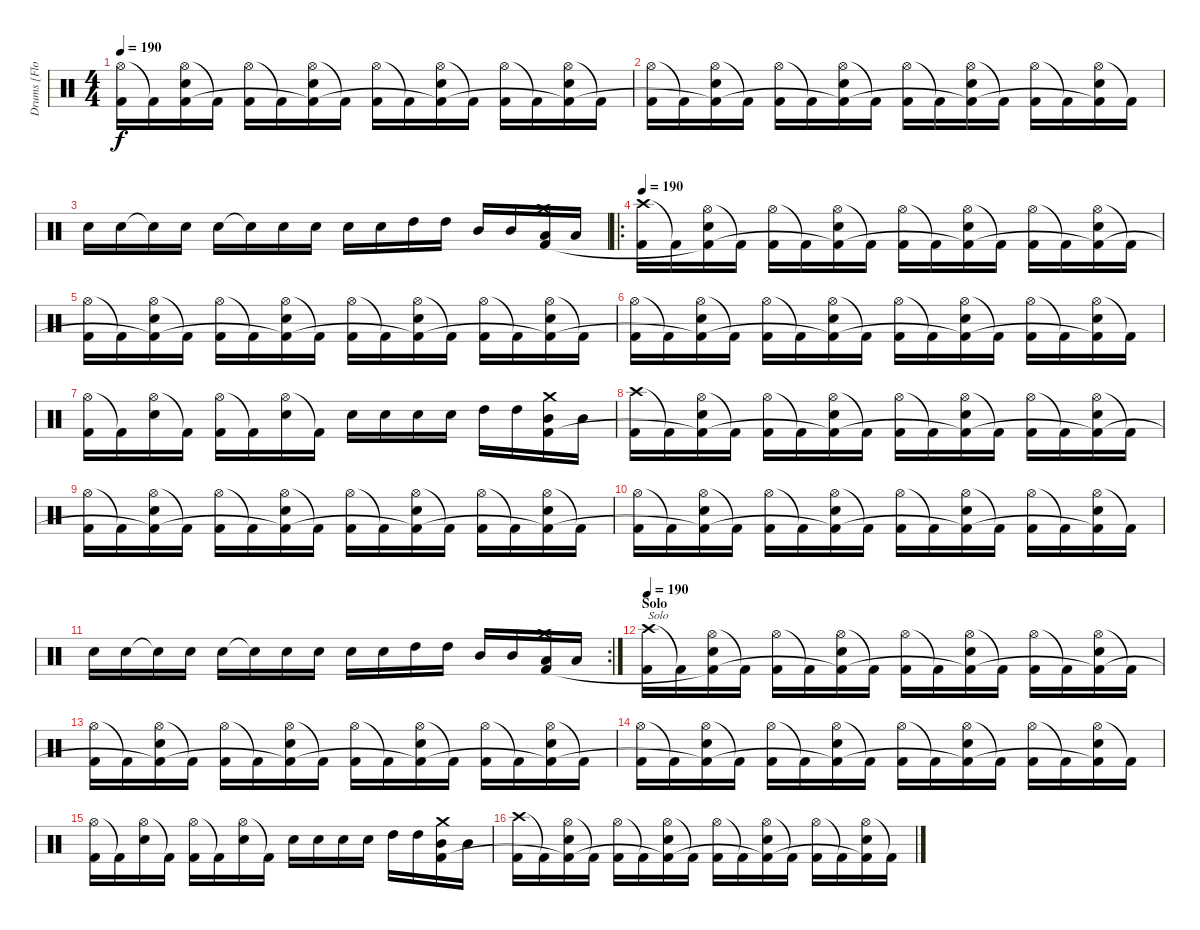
\track ("Drums [Flo Mounier]" "Drums [Flo") {instrument percussion}
\staff {score}
\articulation defaults
\ts (4 4)
\tempo 190
\clef neutral
\ks c
("Hi-Hat (open)" "Kick (hit) 2").16{dy f} "Kick (hit) 2"{t}.16 ("Hi-Hat (open)" "Electric Snare (hit)" "Kick (hit) 2"{t}).16 "Kick (hit) 2"{t}.16 ("Hi-Hat (open)" "Kick (hit) 2").16 "Kick (hit) 2"{t}.16 ("Hi-Hat (open)" "Electric Snare (hit)" "Kick (hit) 2"{t}).16 "Kick (hit) 2"{t}.16 ("Hi-Hat (open)" "Kick (hit) 2").16 "Kick (hit) 2"{t}.16 ("Hi-Hat (open)" "Electric Snare (hit)" "Kick (hit) 2"{t}).16 "Kick (hit) 2"{t}.16 ("Hi-Hat (open)" "Kick (hit) 2").16 "Kick (hit) 2"{t}.16 ("Hi-Hat (open)" "Electric Snare (hit)" "Kick (hit) 2"{t}).16 "Kick (hit) 2"{t}.16 |
("Hi-Hat (open)" "Kick (hit) 2").16 "Kick (hit) 2"{t}.16 ("Hi-Hat (open)" "Electric Snare (hit)" "Kick (hit) 2"{t}).16 "Kick (hit) 2"{t}.16 ("Hi-Hat (open)" "Kick (hit) 2").16 "Kick (hit) 2"{t}.16 ("Hi-Hat (open)" "Electric Snare (hit)" "Kick (hit) 2"{t}).16 "Kick (hit) 2"{t}.16 ("Hi-Hat (open)" "Kick (hit) 2").16 "Kick (hit) 2"{t}.16 ("Hi-Hat (open)" "Electric Snare (hit)" "Kick (hit) 2"{t}).16 "Kick (hit) 2"{t}.16 ("Hi-Hat (open)" "Kick (hit) 2").16 "Kick (hit) 2"{t}.16 ("Hi-Hat (open)" "Electric Snare (hit)" "Kick (hit) 2"{t}).16 "Kick (hit) 2"{t}.16 |
"Electric Snare (hit)".16 "Electric Snare (hit)".16 "Snare (hit)"{t}.16 "Electric Snare (hit)".16 "Electric Snare (hit)".16 "Snare (hit)"{t}.16 "Electric Snare (hit)".16 "Electric Snare (hit)".16 "Electric Snare (hit)".16 "Electric Snare (hit)".16 "High Tom (hit)".16 "High Tom (hit)".16 "Mid Tom (hit)".16 "Mid Tom (hit)".16 ("Crash medium (hit)" "Low Tom (hit)" "Kick (hit) 2").16 "Low Tom (hit)".16 |
\ro
\tempo 190
("Crash high (hit)" "Kick (hit) 2").16 "Kick (hit) 2"{t}.16 ("Hi-Hat (open)" "Electric Snare (hit)" "Kick (hit) 2"{t}).16 "Kick (hit) 2"{t}.16 ("Hi-Hat (open)" "Kick (hit) 2").16 "Kick (hit) 2"{t}.16 ("Hi-Hat (open)" "Electric Snare (hit)" "Kick (hit) 2"{t}).16 "Kick (hit) 2"{t}.16 ("Hi-Hat (open)" "Kick (hit) 2").16 "Kick (hit) 2"{t}.16 ("Hi-Hat (open)" "Electric Snare (hit)" "Kick (hit) 2"{t}).16 "Kick (hit) 2"{t}.16 ("Hi-Hat (open)" "Kick (hit) 2").16 "Kick (hit) 2"{t}.16 ("Hi-Hat (open)" "Electric Snare (hit)" "Kick (hit) 2"{t}).16 "Kick (hit) 2"{t}.16 |
("Hi-Hat (open)" "Kick (hit) 2").16 "Kick (hit) 2"{t}.16 ("Hi-Hat (open)" "Electric Snare (hit)" "Kick (hit) 2"{t}).16 "Kick (hit) 2"{t}.16 ("Hi-Hat (open)" "Kick (hit) 2").16 "Kick (hit) 2"{t}.16 ("Hi-Hat (open)" "Electric Snare (hit)" "Kick (hit) 2"{t}).16 "Kick (hit) 2"{t}.16 ("Hi-Hat (open)" "Kick (hit) 2").16 "Kick (hit) 2"{t}.16 ("Hi-Hat (open)" "Electric Snare (hit)" "Kick (hit) 2"{t}).16 "Kick (hit) 2"{t}.16 ("Hi-Hat (open)" "Kick (hit) 2").16 "Kick (hit) 2"{t}.16 ("Hi-Hat (open)" "Electric Snare (hit)" "Kick (hit) 2"{t}).16 "Kick (hit) 2"{t}.16 |
("Hi-Hat (open)" "Kick (hit) 2").16 "Kick (hit) 2"{t}.16 ("Hi-Hat (open)" "Electric Snare (hit)" "Kick (hit) 2"{t}).16 "Kick (hit) 2"{t}.16 ("Hi-Hat (open)" "Kick (hit) 2").16 "Kick (hit) 2"{t}.16 ("Hi-Hat (open)" "Electric Snare (hit)" "Kick (hit) 2"{t}).16 "Kick (hit) 2"{t}.16 ("Hi-Hat (open)" "Kick (hit) 2").16 "Kick (hit) 2"{t}.16 ("Hi-Hat (open)" "Electric Snare (hit)" "Kick (hit) 2"{t}).16 "Kick (hit) 2"{t}.16 ("Hi-Hat (open)" "Kick (hit) 2").16 "Kick (hit) 2"{t}.16 ("Hi-Hat (open)" "Electric Snare (hit)" "Kick (hit) 2"{t}).16 "Kick (hit) 2"{t}.16 |
("Hi-Hat (open)" "Kick (hit) 2").16 "Kick (hit) 2"{t}.16 ("Hi-Hat (open)" "Electric Snare (hit)").16 "Kick (hit) 2"{t}.16 ("Hi-Hat (open)" "Kick (hit) 2").16 "Kick (hit) 2"{t}.16 ("Hi-Hat (open)" "Electric Snare (hit)").16 "Kick (hit) 2"{t}.16 "Electric Snare (hit)".16 "Electric Snare (hit)".16 "Electric Snare (hit)".16 "Electric Snare (hit)".16 "High Tom (hit)".16 "High Tom (hit)".16 ("Crash medium (hit)" "Mid Tom (hit)" "Kick (hit) 2").16 "Mid Tom (hit)".16 |
("Crash high (hit)" "Kick (hit) 2").16 "Kick (hit) 2"{t}.16 ("Hi-Hat (open)" "Electric Snare (hit)" "Kick (hit) 2"{t}).16 "Kick (hit) 2"{t}.16 ("Hi-Hat (open)" "Kick (hit) 2").16 "Kick (hit) 2"{t}.16 ("Hi-Hat (open)" "Electric Snare (hit)" "Kick (hit) 2"{t}).16 "Kick (hit) 2"{t}.16 ("Hi-Hat (open)" "Kick (hit) 2").16 "Kick (hit) 2"{t}.16 ("Hi-Hat (open)" "Electric Snare (hit)" "Kick (hit) 2"{t}).16 "Kick (hit) 2"{t}.16 ("Hi-Hat (open)" "Kick (hit) 2").16 "Kick (hit) 2"{t}.16 ("Hi-Hat (open)" "Electric Snare (hit)" "Kick (hit) 2"{t}).16 "Kick (hit) 2"{t}.16 |
("Hi-Hat (open)" "Kick (hit) 2").16 "Kick (hit) 2"{t}.16 ("Hi-Hat (open)" "Electric Snare (hit)" "Kick (hit) 2"{t}).16 "Kick (hit) 2"{t}.16 ("Hi-Hat (open)" "Kick (hit) 2").16 "Kick (hit) 2"{t}.16 ("Hi-Hat (open)" "Electric Snare (hit)" "Kick (hit) 2"{t}).16 "Kick (hit) 2"{t}.16 ("Hi-Hat (open)" "Kick (hit) 2").16 "Kick (hit) 2"{t}.16 ("Hi-Hat (open)" "Electric Snare (hit)" "Kick (hit) 2"{t}).16 "Kick (hit) 2"{t}.16 ("Hi-Hat (open)" "Kick (hit) 2").16 "Kick (hit) 2"{t}.16 ("Hi-Hat (open)" "Electric Snare (hit)" "Kick (hit) 2"{t}).16 "Kick (hit) 2"{t}.16 |
("Hi-Hat (open)" "Kick (hit) 2").16 "Kick (hit) 2"{t}.16 ("Hi-Hat (open)" "Electric Snare (hit)" "Kick (hit) 2"{t}).16 "Kick (hit) 2"{t}.16 ("Hi-Hat (open)" "Kick (hit) 2").16 "Kick (hit) 2"{t}.16 ("Hi-Hat (open)" "Electric Snare (hit)" "Kick (hit) 2"{t}).16 "Kick (hit) 2"{t}.16 ("Hi-Hat (open)" "Kick (hit) 2").16 "Kick (hit) 2"{t}.16 ("Hi-Hat (open)" "Electric Snare (hit)" "Kick (hit) 2"{t}).16 "Kick (hit) 2"{t}.16 ("Hi-Hat (open)" "Kick (hit) 2").16 "Kick (hit) 2"{t}.16 ("Hi-Hat (open)" "Electric Snare (hit)" "Kick (hit) 2"{t}).16 "Kick (hit) 2"{t}.16 |
\rc 2 "Electric Snare (hit)".16 "Electric Snare (hit)".16 "Snare (hit)"{t}.16 "Electric Snare (hit)".16 "Electric Snare (hit)".16 "Snare (hit)"{t}.16 "Electric Snare (hit)".16 "Electric Snare (hit)".16 "Electric Snare (hit)".16 "Electric Snare (hit)".16 "High Tom (hit)".16 "High Tom (hit)".16 "Mid Tom (hit)".16 "Mid Tom (hit)".16
("Crash medium (hit)" "Low Tom (hit)" "Kick (hit) 2").16 "Low Tom (hit)".16 |
\section ("" "Solo")
\tempo 190
("Crash high (hit)" "Kick (hit) 2").16{txt "Solo"} "Kick (hit) 2"{t}.16 ("Hi-Hat (open)" "Electric Snare (hit)" "Kick (hit) 2"{t}).16 "Kick (hit) 2"{t}.16 ("Hi-Hat (open)" "Kick (hit) 2").16 "Kick (hit) 2"{t}.16 ("Hi-Hat (open)" "Electric Snare (hit)" "Kick (hit) 2"{t}).16 "Kick (hit) 2"{t}.16 ("Hi-Hat (open)" "Kick (hit) 2").16 "Kick (hit) 2"{t}.16 ("Hi-Hat (open)" "Electric Snare (hit)" "Kick (hit) 2"{t}).16 "Kick (hit) 2"{t}.16 ("Hi-Hat (open)" "Kick (hit) 2").16 "Kick (hit) 2"{t}.16 ("Hi-Hat (open)" "Electric Snare (hit)" "Kick (hit) 2"{t}).16 "Kick (hit) 2"{t}.16 |
("Hi-Hat (open)" "Kick (hit) 2").16 "Kick (hit) 2"{t}.16 ("Hi-Hat (open)" "Electric Snare (hit)" "Kick (hit) 2"{t}).16 "Kick (hit) 2"{t}.16 ("Hi-Hat (open)" "Kick (hit) 2").16 "Kick (hit) 2"{t}.16 ("Hi-Hat (open)" "Electric Snare (hit)" "Kick (hit) 2"{t}).16 "Kick (hit) 2"{t}.16 ("Hi-Hat (open)" "Kick (hit) 2").16 "Kick (hit) 2"{t}.16 ("Hi-Hat (open)" "Electric Snare (hit)" "Kick (hit) 2"{t}).16 "Kick (hit) 2"{t}.16 ("Hi-Hat (open)" "Kick (hit) 2").16 "Kick (hit) 2"{t}.16 ("Hi-Hat (open)" "Electric Snare (hit)" "Kick (hit) 2"{t}).16 "Kick (hit) 2"{t}.16 |
("Hi-Hat (open)" "Kick (hit) 2").16 "Kick (hit) 2"{t}.16 ("Hi-Hat (open)" "Electric Snare (hit)" "Kick (hit) 2"{t}).16 "Kick (hit) 2"{t}.16 ("Hi-Hat (open)" "Kick (hit) 2").16 "Kick (hit) 2"{t}.16 ("Hi-Hat (open)" "Electric Snare (hit)" "Kick (hit) 2"{t}).16 "Kick (hit) 2"{t}.16 ("Hi-Hat (open)" "Kick (hit) 2").16 "Kick (hit) 2"{t}.16 ("Hi-Hat (open)" "Electric Snare (hit)" "Kick (hit) 2"{t}).16 "Kick (hit) 2"{t}.16 ("Hi-Hat (open)" "Kick (hit) 2").16 "Kick (hit) 2"{t}.16 ("Hi-Hat (open)" "Electric Snare (hit)" "Kick (hit) 2"{t}).16 "Kick (hit) 2"{t}.16 |
("Hi-Hat (open)" "Kick (hit) 2").16 "Kick (hit) 2"{t}.16 ("Hi-Hat (open)" "Electric Snare (hit)").16 "Kick (hit) 2"{t}.16 ("Hi-Hat (open)" "Kick (hit) 2").16 "Kick (hit) 2"{t}.16 ("Hi-Hat (open)" "Electric Snare (hit)").16 "Kick (hit) 2"{t}.16 "Electric Snare (hit)".16 "Electric Snare (hit)".16 "Electric Snare (hit)".16 "Electric Snare (hit)".16 "High Tom (hit)".16 "High Tom (hit)".16 ("Crash medium (hit)" "Mid Tom (hit)" "Kick (hit) 2").16 "Mid Tom (hit)".16 |
("Crash high (hit)" "Kick (hit) 2").16 "Kick (hit) 2"{t}.16 ("Hi-Hat (open)" "Electric Snare (hit)" "Kick (hit) 2"{t}).16 "Kick (hit) 2"{t}.16 ("Hi-Hat (open)" "Kick (hit) 2").16 "Kick (hit) 2"{t}.16 ("Hi-Hat (open)" "Electric Snare (hit)" "Kick (hit) 2"{t}).16 "Kick (hit) 2"{t}.16 ("Hi-Hat (open)" "Kick (hit) 2").16 "Kick (hit) 2"{t}.16 ("Hi-Hat (open)" "Electric Snare (hit)" "Kick (hit) 2"{t}).16 "Kick (hit) 2"{t}.16 ("Hi-Hat (open)" "Kick (hit) 2").16 "Kick (hit) 2"{t}.16 ("Hi-Hat (open)" "Electric Snare (hit)" "Kick (hit) 2"{t}).16 "Kick (hit) 2"{t}.16
